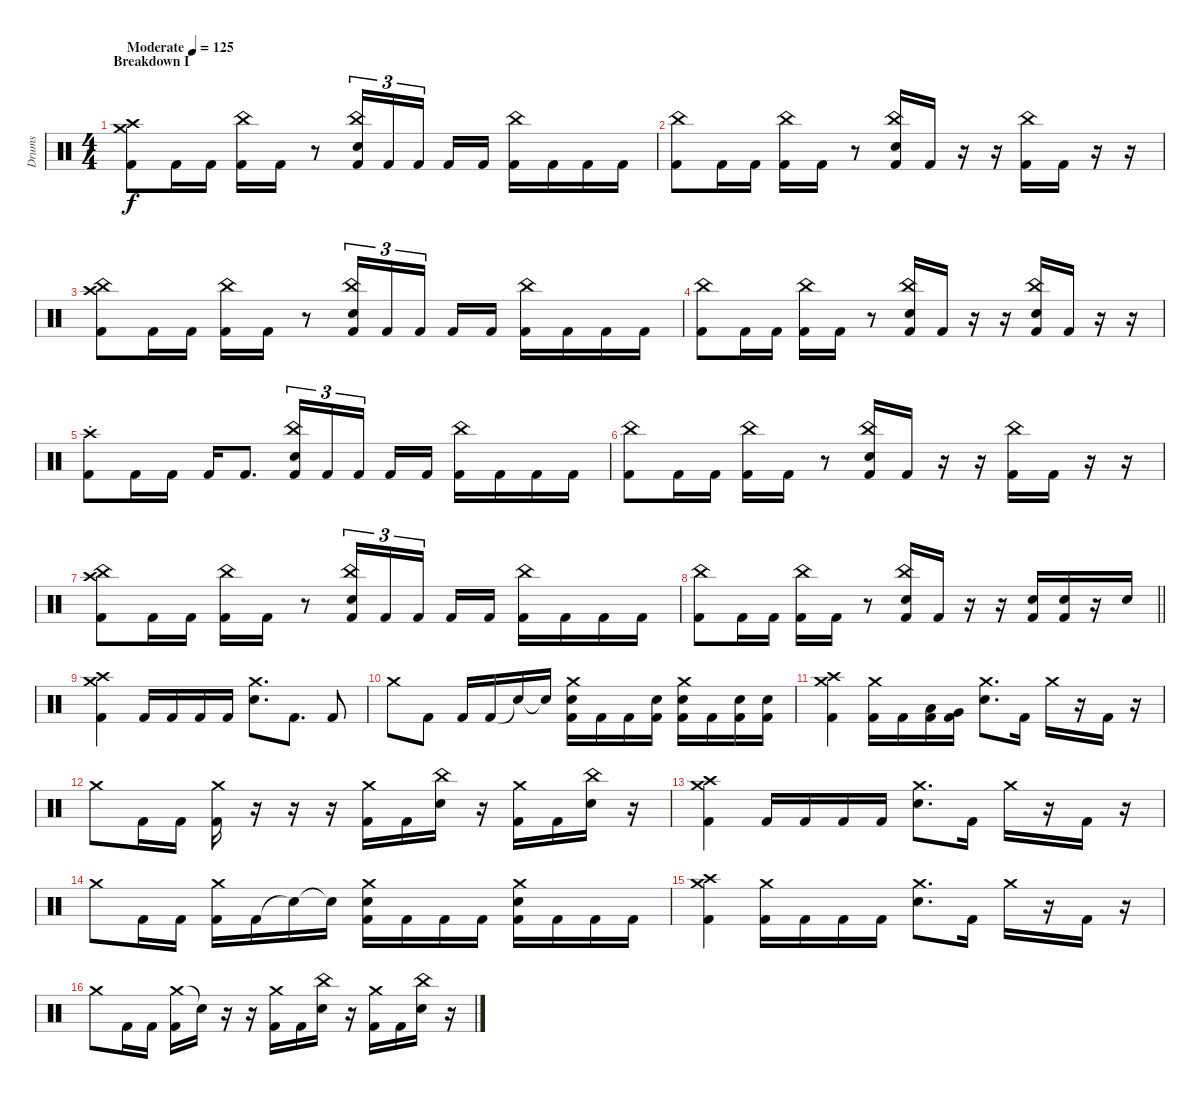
\track ("Drums" "Drums") {instrument percussion}
\staff {score}
\articulation defaults
\ts (4 4)
\section ("" "Breakdown I")
\tempo (125 "Moderate")
\clef neutral
\ks c
("Crash medium (hit)" "Crash high (hit)" "Kick (hit) 2").8{dy f} "Kick (hit) 2".16 "Kick (hit) 2".16 ("China (hit)" "Kick (hit) 2").16 "Kick (hit) 2".16 r.8 ("China (hit)" "Snare (hit) 2" "Kick (hit) 2").16{tu (3 2)} "Kick (hit) 2".16{tu (3 2)} "Kick (hit) 2".16{tu (3 2) beam splitsecondary} "Kick (hit) 2".16 "Kick (hit) 2".16 ("China (hit)" "Kick (hit) 2").16 "Kick (hit) 2".16 "Kick (hit) 2".16 "Kick (hit) 2".16 |
("China (hit)" "Kick (hit) 2").8 "Kick (hit) 2".16 "Kick (hit) 2".16 ("China (hit)" "Kick (hit) 2").16 "Kick (hit) 2".16 r.8 ("China (hit)" "Snare (hit) 2" "Kick (hit) 2").16 "Kick (hit) 2".16 r.16 r.16 ("China (hit)" "Kick (hit) 2").16 "Kick (hit) 2".16 r.16 r.16 |
("China (hit)" "Crash high (hit)" "Kick (hit) 2").8 "Kick (hit) 2".16 "Kick (hit) 2".16 ("China (hit)" "Kick (hit) 2").16 "Kick (hit) 2".16 r.8 ("China (hit)" "Snare (hit) 2" "Kick (hit) 2").16{tu (3 2)} "Kick (hit) 2".16{tu (3 2)} "Kick (hit) 2".16{tu (3 2) beam splitsecondary} "Kick (hit) 2".16 "Kick (hit) 2".16 ("China (hit)" "Kick (hit) 2").16 "Kick (hit) 2".16 "Kick (hit) 2".16 "Kick (hit) 2".16 |
("China (hit)" "Kick (hit) 2").8 "Kick (hit) 2".16 "Kick (hit) 2".16 ("China (hit)" "Kick (hit) 2").16 "Kick (hit) 2".16 r.8 ("China (hit)" "Snare (hit) 2" "Kick (hit) 2").16 "Kick (hit) 2".16 r.16 r.16 ("China (hit)" "Snare (hit) 2" "Kick (hit) 2").16 "Kick (hit) 2".16 r.16 r.16 |
("Crash high (hit)"{st} "Kick (hit) 2").8 "Kick (hit) 2".16 "Kick (hit) 2".16 "Kick (hit) 2".16 "Kick (hit) 2".8{d} ("China (hit)" "Snare (hit) 2" "Kick (hit) 2").16{tu (3 2)} "Kick (hit) 2".16{tu (3 2)} "Kick (hit) 2".16{tu (3 2) beam splitsecondary} "Kick (hit) 2".16 "Kick (hit) 2".16 ("China (hit)" "Kick (hit) 2").16 "Kick (hit) 2".16 "Kick (hit) 2".16 "Kick (hit) 2".16 |
("China (hit)" "Kick (hit) 2").8 "Kick (hit) 2".16 "Kick (hit) 2".16 ("China (hit)" "Kick (hit) 2").16 "Kick (hit) 2".16 r.8 ("China (hit)" "Snare (hit) 2" "Kick (hit) 2").16 "Kick (hit) 2".16 r.16 r.16 ("China (hit)" "Kick (hit) 2").16 "Kick (hit) 2".16 r.16 r.16 |
("China (hit)" "Crash high (hit)" "Kick (hit) 2").8 "Kick (hit) 2".16 "Kick (hit) 2".16 ("China (hit)" "Kick (hit) 2").16 "Kick (hit) 2".16 r.8 ("China (hit)" "Snare (hit) 2" "Kick (hit) 2").16{tu (3 2)} "Kick (hit) 2".16{tu (3 2)} "Kick (hit) 2".16{tu (3 2) beam splitsecondary} "Kick (hit) 2".16 "Kick (hit) 2".16 ("China (hit)" "Kick (hit) 2").16 "Kick (hit) 2".16 "Kick (hit) 2".16 "Kick (hit) 2".16 |
\barLineRight lightlight
("China (hit)" "Kick (hit) 2").8 "Kick (hit) 2".16 "Kick (hit) 2".16 ("China (hit)" "Kick (hit) 2").16 "Kick (hit) 2".16 r.8 ("China (hit)" "Snare (hit) 2" "Kick (hit) 2").16 "Kick (hit) 2".16 r.16 r.16 ("Snare (hit) 2" "Kick (hit) 2").16 ("Snare (hit) 2" "Kick (hit) 2").16 r.16 "Snare (hit) 2".16 |
\section ("" "")
("Crash medium (hit)" "Crash high (hit)" "Kick (hit) 2").4 "Kick (hit) 2".16 "Kick (hit) 2".16 "Kick (hit) 2".16 "Kick (hit) 2".16 ("Crash medium (hit)" "Snare (hit) 2").8{d} "Kick (hit) 2".8{d} "Kick (hit) 2".8 |
"Crash medium (hit)".8 "Kick (hit) 2".8 "Kick (hit) 2".16 "Kick (hit) 2".16 "Snare (hit)"{t}.16 "Snare (hit)"{t}.16 ("Crash medium (hit)" "Snare (hit) 2" "Kick (hit) 2").16 "Kick (hit) 2".16 "Kick (hit) 2".16 ("Snare (hit) 2" "Kick (hit) 2").16 ("Crash medium (hit)" "Snare (hit) 2" "Kick (hit) 2").16 "Kick (hit) 2".16 ("Snare (hit) 2" "Kick (hit) 2").16 ("Snare (hit) 2" "Kick (hit) 2").16 |
("Crash medium (hit)" "Crash high (hit)" "Kick (hit) 2").4 ("Crash medium (hit)" "Kick (hit) 2").16 "Kick (hit) 2".16 ("Low Tom (hit)" "Kick (hit) 2").16 ("Very Low Tom (hit)" "Kick (hit) 2").16 ("Crash medium (hit)" "Snare (hit) 2").8{d} "Kick (hit) 2".16 "Crash medium (hit)".16 r.16 "Kick (hit) 2".16 r.16 |
"Crash medium (hit)".8 "Kick (hit) 2".16 "Kick (hit) 2".16 ("Crash medium (hit)" "Kick (hit) 2").16 r.16 r.16 r.16 ("Crash medium (hit)" "Kick (hit) 2").16 "Kick (hit) 2".16 ("China (hit)" "Snare (hit) 2").16 r.16 ("Crash medium (hit)" "Kick (hit) 2").16 "Kick (hit) 2".16 ("China (hit)" "Snare (hit) 2").16 r.16 |
("Crash medium (hit)" "Crash high (hit)" "Kick (hit) 2").4 "Kick (hit) 2".16 "Kick (hit) 2".16 "Kick (hit) 2".16 "Kick (hit) 2".16 ("Crash medium (hit)" "Snare (hit) 2").8{d} "Kick (hit) 2".16 "Crash medium (hit)".16 r.16 "Kick (hit) 2".16 r.16 |
"Crash medium (hit)".8 "Kick (hit) 2".16 "Kick (hit) 2".16 ("Crash medium (hit)" "Kick (hit) 2").16 "Kick (hit) 2".16 "Snare (hit)"{t}.16 "Snare (hit)"{t}.16 ("Crash medium (hit)" "Snare (hit) 2" "Kick (hit) 2").16 "Kick (hit) 2".16 "Kick (hit) 2".16 "Kick (hit) 2".16 ("Crash medium (hit)" "Snare (hit) 2" "Kick (hit) 2").16 "Kick (hit) 2".16 "Kick (hit) 2".16 "Kick (hit) 2".16 |
("Crash medium (hit)" "Crash high (hit)" "Kick (hit) 2").4 ("Crash medium (hit)" "Kick (hit) 2").16 "Kick (hit) 2".16 "Kick (hit) 2".16 "Kick (hit) 2".16 ("Crash medium (hit)" "Snare (hit) 2").8{d} "Kick (hit) 2".16 "Crash medium (hit)".16 r.16 "Kick (hit) 2".16 r.16 |
"Crash medium (hit)".8 "Kick (hit) 2".16 "Kick (hit) 2".16 ("Crash medium (hit)" "Kick (hit) 2").16 "Snare (hit)"{t}.16 r.16 r.16 ("Crash medium (hit)" "Kick (hit) 2").16 "Kick (hit) 2".16 ("China (hit)" "Snare (hit) 2").16 r.16 ("Crash medium (hit)" "Kick (hit) 2").16 "Kick (hit) 2".16 ("China (hit)" "Snare (hit) 2").16 r.16
